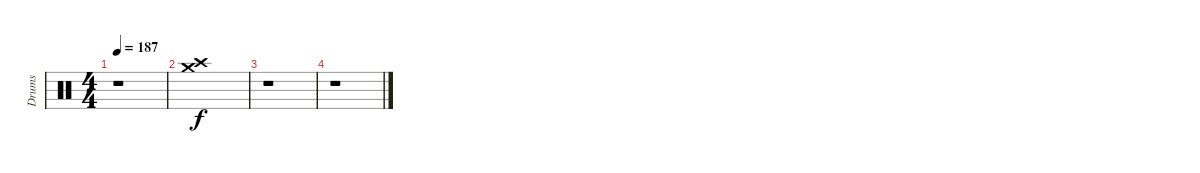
\track ("Drums" "Drums") {instrument percussion}
\staff {score}
\articulation defaults
\ts (4 4)
\tempo 187
\clef neutral
\ks c
r.1{dy f volume 0} |
("Crash medium (hit)" "Crash high (hit)").1 |
r.1 |
r.1
